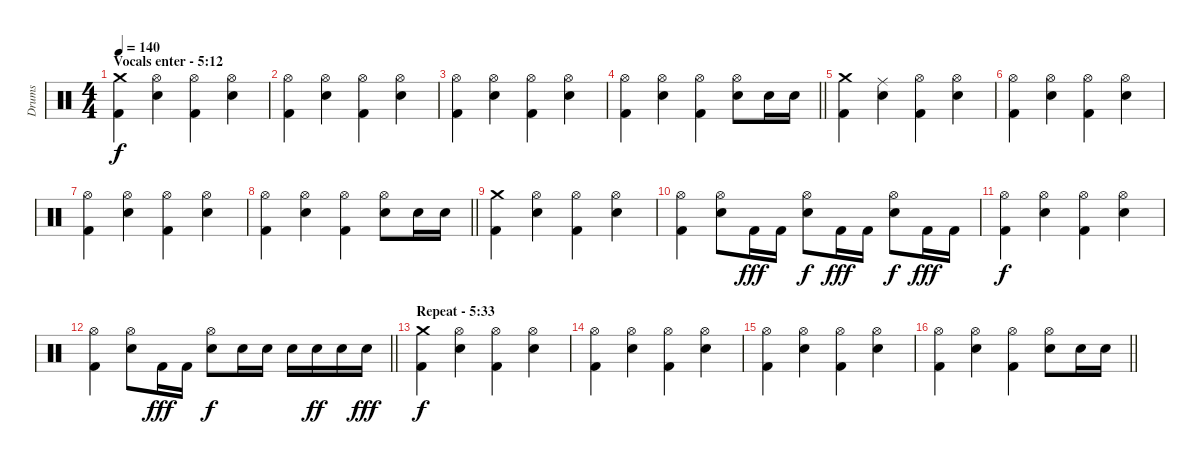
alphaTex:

\track ("Drums" "Drums") {instrument percussion}
\staff {score}
\articulation defaults
\ts (4 4)
\section ("" "Vocals enter - 5:12")
\tempo 140
\clef neutral
\ks c
("Crash medium (hit)" "Kick (hit) 2").4{dy f} ("Hi-Hat (open)" "Electric Snare (hit)").4 ("Hi-Hat (open)" "Kick (hit) 2").4 ("Hi-Hat (open)" "Electric Snare (hit)").4 |
("Hi-Hat (open)" "Kick (hit) 2").4 ("Hi-Hat (open)" "Electric Snare (hit)").4 ("Hi-Hat (open)" "Kick (hit) 2").4 ("Hi-Hat (open)" "Electric Snare (hit)").4 |
("Hi-Hat (open)" "Kick (hit) 2").4 ("Hi-Hat (open)" "Electric Snare (hit)").4 ("Hi-Hat (open)" "Kick (hit) 2").4 ("Hi-Hat (open)" "Electric Snare (hit)").4 |
\barLineRight lightlight
("Hi-Hat (open)" "Kick (hit) 2").4 ("Hi-Hat (open)" "Electric Snare (hit)").4 ("Hi-Hat (open)" "Kick (hit) 2").4 ("Hi-Hat (open)" "Electric Snare (hit)").8 "Electric Snare (hit)".16 "Electric Snare (hit)".16 |
("Crash medium (hit)" "Kick (hit) 2").4 ("Ride (middle)" "Electric Snare (hit)").4 ("Hi-Hat (open)" "Kick (hit) 2").4 ("Hi-Hat (open)" "Electric Snare (hit)").4 |
("Hi-Hat (open)" "Kick (hit) 2").4 ("Hi-Hat (open)" "Electric Snare (hit)").4 ("Hi-Hat (open)" "Kick (hit) 2").4 ("Hi-Hat (open)" "Electric Snare (hit)").4 |
("Hi-Hat (open)" "Kick (hit) 2").4 ("Hi-Hat (open)" "Electric Snare (hit)").4 ("Hi-Hat (open)" "Kick (hit) 2").4 ("Hi-Hat (open)" "Electric Snare (hit)").4 |
\barLineRight lightlight
("Hi-Hat (open)" "Kick (hit) 2").4 ("Hi-Hat (open)" "Electric Snare (hit)").4 ("Hi-Hat (open)" "Kick (hit) 2").4 ("Hi-Hat (open)" "Electric Snare (hit)").8 "Electric Snare (hit)".16 "Electric Snare (hit)".16 |
("Crash medium (hit)" "Kick (hit) 2").4 ("Hi-Hat (open)" "Electric Snare (hit)").4 ("Hi-Hat (open)" "Kick (hit) 2").4 ("Hi-Hat (open)" "Electric Snare (hit)").4 |
("Hi-Hat (open)" "Kick (hit) 2").4 ("Hi-Hat (open)" "Electric Snare (hit)").8 "Kick (hit) 2".16{dy fff} "Kick (hit) 2".16 ("Hi-Hat (open)" "Electric Snare (hit)").8{dy f} "Kick (hit) 2".16{dy fff} "Kick (hit) 2".16 ("Hi-Hat (open)" "Electric Snare (hit)").8{dy f} "Kick (hit) 2".16{dy fff} "Kick (hit) 2".16 |
("Hi-Hat (open)" "Kick (hit) 2").4{dy f} ("Hi-Hat (open)" "Electric Snare (hit)").4 ("Hi-Hat (open)" "Kick (hit) 2").4 ("Hi-Hat (open)" "Electric Snare (hit)").4 |
\barLineRight lightlight
("Hi-Hat (open)" "Kick (hit) 2").4 ("Hi-Hat (open)" "Electric Snare (hit)").8 "Kick (hit) 2".16{dy fff} "Kick (hit) 2".16 ("Hi-Hat (open)" "Electric Snare (hit)").8{dy f} "Electric Snare (hit)".16 "Electric Snare (hit)".16 "Electric Snare (hit)".16 "Electric Snare (hit)".16{dy ff} "Electric Snare (hit)".16 "Electric Snare (hit)".16{dy fff} |
\section ("" "Repeat - 5:33")
("Crash medium (hit)" "Kick (hit) 2").4{dy f} ("Hi-Hat (open)" "Electric Snare (hit)").4 ("Hi-Hat (open)" "Kick (hit) 2").4 ("Hi-Hat (open)" "Electric Snare (hit)").4 |
("Hi-Hat (open)" "Kick (hit) 2").4 ("Hi-Hat (open)" "Electric Snare (hit)").4 ("Hi-Hat (open)" "Kick (hit) 2").4 ("Hi-Hat (open)" "Electric Snare (hit)").4 |
("Hi-Hat (open)" "Kick (hit) 2").4 ("Hi-Hat (open)" "Electric Snare (hit)").4 ("Hi-Hat (open)" "Kick (hit) 2").4 ("Hi-Hat (open)" "Electric Snare (hit)").4 |
\barLineRight lightlight
("Hi-Hat (open)" "Kick (hit) 2").4 ("Hi-Hat (open)" "Electric Snare (hit)").4 ("Hi-Hat (open)" "Kick (hit) 2").4 ("Hi-Hat (open)" "Electric Snare (hit)").8 "Electric Snare (hit)".16 "Electric Snare (hit)".16
